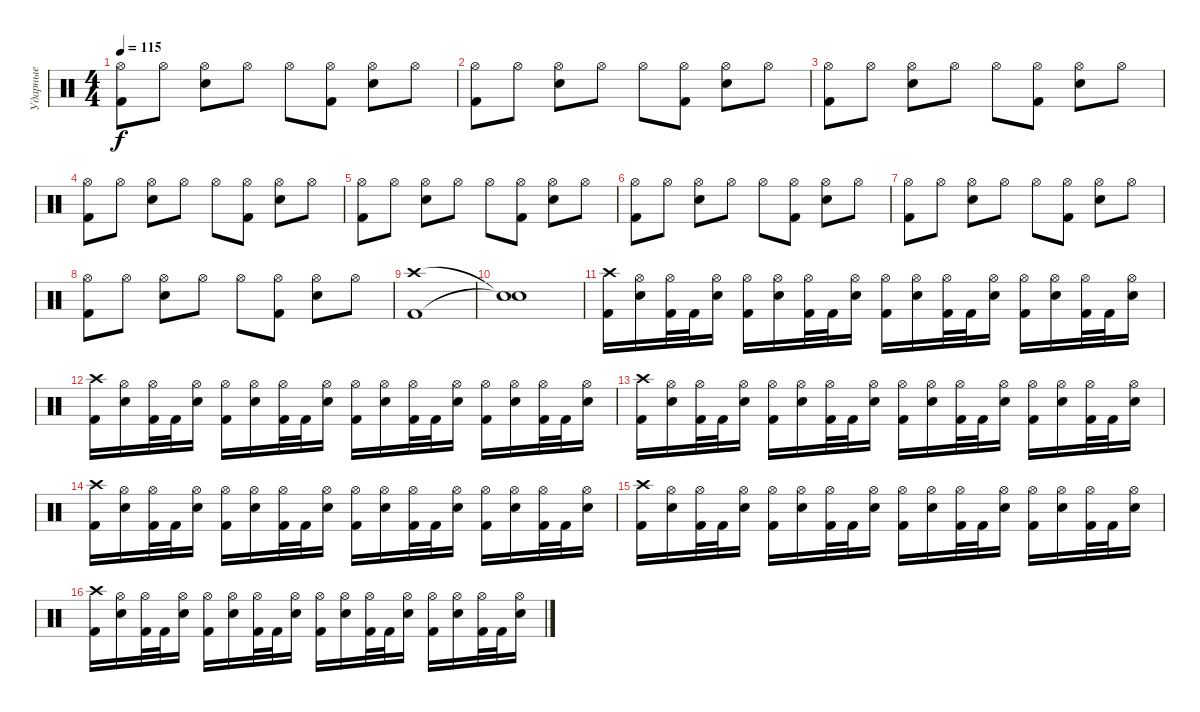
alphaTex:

\track ("Ударные" "Ударные") {instrument percussion}
\staff {score}
\articulation defaults
\ts (4 4)
\tempo 115
\clef neutral
\ks c
("Hi-Hat (open)" "Kick (hit) 2").8{dy f} "Hi-Hat (open)".8 ("Hi-Hat (open)" "Electric Snare (hit)").8 "Hi-Hat (open)".8 "Hi-Hat (open)".8 ("Hi-Hat (open)" "Kick (hit) 2").8 ("Hi-Hat (open)" "Electric Snare (hit)").8 "Hi-Hat (open)".8 |
("Hi-Hat (open)" "Kick (hit) 2").8 "Hi-Hat (open)".8 ("Hi-Hat (open)" "Electric Snare (hit)").8 "Hi-Hat (open)".8 "Hi-Hat (open)".8 ("Hi-Hat (open)" "Kick (hit) 2").8 ("Hi-Hat (open)" "Electric Snare (hit)").8 "Hi-Hat (open)".8 |
("Hi-Hat (open)" "Kick (hit) 2").8 "Hi-Hat (open)".8 ("Hi-Hat (open)" "Electric Snare (hit)").8 "Hi-Hat (open)".8 "Hi-Hat (open)".8 ("Hi-Hat (open)" "Kick (hit) 2").8 ("Hi-Hat (open)" "Electric Snare (hit)").8 "Hi-Hat (open)".8 |
("Hi-Hat (open)" "Kick (hit) 2").8 "Hi-Hat (open)".8 ("Hi-Hat (open)" "Electric Snare (hit)").8 "Hi-Hat (open)".8 "Hi-Hat (open)".8 ("Hi-Hat (open)" "Kick (hit) 2").8 ("Hi-Hat (open)" "Electric Snare (hit)").8 "Hi-Hat (open)".8 |
("Hi-Hat (open)" "Kick (hit) 2").8 "Hi-Hat (open)".8 ("Hi-Hat (open)" "Electric Snare (hit)").8 "Hi-Hat (open)".8 "Hi-Hat (open)".8 ("Hi-Hat (open)" "Kick (hit) 2").8 ("Hi-Hat (open)" "Electric Snare (hit)").8 "Hi-Hat (open)".8 |
("Hi-Hat (open)" "Kick (hit) 2").8 "Hi-Hat (open)".8 ("Hi-Hat (open)" "Electric Snare (hit)").8 "Hi-Hat (open)".8 "Hi-Hat (open)".8 ("Hi-Hat (open)" "Kick (hit) 2").8 ("Hi-Hat (open)" "Electric Snare (hit)").8 "Hi-Hat (open)".8 |
("Hi-Hat (open)" "Kick (hit) 2").8 "Hi-Hat (open)".8 ("Hi-Hat (open)" "Electric Snare (hit)").8 "Hi-Hat (open)".8 "Hi-Hat (open)".8 ("Hi-Hat (open)" "Kick (hit) 2").8 ("Hi-Hat (open)" "Electric Snare (hit)").8 "Hi-Hat (open)".8 |
("Hi-Hat (open)" "Kick (hit) 2").8 "Hi-Hat (open)".8 ("Hi-Hat (open)" "Electric Snare (hit)").8 "Hi-Hat (open)".8 "Hi-Hat (open)".8 ("Hi-Hat (open)" "Kick (hit) 2").8 ("Hi-Hat (open)" "Electric Snare (hit)").8 "Hi-Hat (open)".8 |
("Crash high (hit)" "Kick (hit) 2").1 |
("Snare (hit)"{t} "Snare (hit)"{t}).1 |
("Crash high (hit)" "Kick (hit) 2").16 ("Hi-Hat (open)" "Electric Snare (hit)").16 ("Hi-Hat (open)" "Kick (hit) 2").32 "Kick (hit) 2".32 ("Hi-Hat (open)" "Electric Snare (hit)").16 ("Hi-Hat (open)" "Kick (hit) 2").16 ("Hi-Hat (open)" "Electric Snare (hit)").16 ("Hi-Hat (open)" "Kick (hit) 2").32 "Kick (hit) 2".32 ("Hi-Hat (open)" "Electric Snare (hit)").16 ("Hi-Hat (open)" "Kick (hit) 2").16 ("Hi-Hat (open)" "Electric Snare (hit)").16 ("Hi-Hat (open)" "Kick (hit) 2").32 "Kick (hit) 2".32 ("Hi-Hat (open)" "Electric Snare (hit)").16 ("Hi-Hat (open)" "Kick (hit) 2").16 ("Hi-Hat (open)" "Electric Snare (hit)").16 ("Hi-Hat (open)" "Kick (hit) 2").32 "Kick (hit) 2".32 ("Hi-Hat (open)" "Electric Snare (hit)").16 |
("Crash high (hit)" "Kick (hit) 2").16 ("Hi-Hat (open)" "Electric Snare (hit)").16 ("Hi-Hat (open)" "Kick (hit) 2").32 "Kick (hit) 2".32 ("Hi-Hat (open)" "Electric Snare (hit)").16 ("Hi-Hat (open)" "Kick (hit) 2").16 ("Hi-Hat (open)" "Electric Snare (hit)").16 ("Hi-Hat (open)" "Kick (hit) 2").32 "Kick (hit) 2".32 ("Hi-Hat (open)" "Electric Snare (hit)").16 ("Hi-Hat (open)" "Kick (hit) 2").16 ("Hi-Hat (open)" "Electric Snare (hit)").16 ("Hi-Hat (open)" "Kick (hit) 2").32 "Kick (hit) 2".32 ("Hi-Hat (open)" "Electric Snare (hit)").16 ("Hi-Hat (open)" "Kick (hit) 2").16 ("Hi-Hat (open)" "Electric Snare (hit)").16 ("Hi-Hat (open)" "Kick (hit) 2").32 "Kick (hit) 2".32 ("Hi-Hat (open)" "Electric Snare (hit)").16 |
("Crash high (hit)" "Kick (hit) 2").16 ("Hi-Hat (open)" "Electric Snare (hit)").16 ("Hi-Hat (open)" "Kick (hit) 2").32 "Kick (hit) 2".32 ("Hi-Hat (open)" "Electric Snare (hit)").16 ("Hi-Hat (open)" "Kick (hit) 2").16 ("Hi-Hat (open)" "Electric Snare (hit)").16 ("Hi-Hat (open)" "Kick (hit) 2").32 "Kick (hit) 2".32 ("Hi-Hat (open)" "Electric Snare (hit)").16 ("Hi-Hat (open)" "Kick (hit) 2").16 ("Hi-Hat (open)" "Electric Snare (hit)").16 ("Hi-Hat (open)" "Kick (hit) 2").32 "Kick (hit) 2".32 ("Hi-Hat (open)" "Electric Snare (hit)").16 ("Hi-Hat (open)" "Kick (hit) 2").16 ("Hi-Hat (open)" "Electric Snare (hit)").16 ("Hi-Hat (open)" "Kick (hit) 2").32 "Kick (hit) 2".32 ("Hi-Hat (open)" "Electric Snare (hit)").16 |
("Crash high (hit)" "Kick (hit) 2").16 ("Hi-Hat (open)" "Electric Snare (hit)").16 ("Hi-Hat (open)" "Kick (hit) 2").32 "Kick (hit) 2".32 ("Hi-Hat (open)" "Electric Snare (hit)").16 ("Hi-Hat (open)" "Kick (hit) 2").16 ("Hi-Hat (open)" "Electric Snare (hit)").16 ("Hi-Hat (open)" "Kick (hit) 2").32 "Kick (hit) 2".32 ("Hi-Hat (open)" "Electric Snare (hit)").16 ("Hi-Hat (open)" "Kick (hit) 2").16 ("Hi-Hat (open)" "Electric Snare (hit)").16 ("Hi-Hat (open)" "Kick (hit) 2").32 "Kick (hit) 2".32 ("Hi-Hat (open)" "Electric Snare (hit)").16 ("Hi-Hat (open)" "Kick (hit) 2").16 ("Hi-Hat (open)" "Electric Snare (hit)").16 ("Hi-Hat (open)" "Kick (hit) 2").32 "Kick (hit) 2".32 ("Hi-Hat (open)" "Electric Snare (hit)").16 |
("Crash high (hit)" "Kick (hit) 2").16 ("Hi-Hat (open)" "Electric Snare (hit)").16 ("Hi-Hat (open)" "Kick (hit) 2").32 "Kick (hit) 2".32 ("Hi-Hat (open)" "Electric Snare (hit)").16 ("Hi-Hat (open)" "Kick (hit) 2").16 ("Hi-Hat (open)" "Electric Snare (hit)").16 ("Hi-Hat (open)" "Kick (hit) 2").32 "Kick (hit) 2".32 ("Hi-Hat (open)" "Electric Snare (hit)").16 ("Hi-Hat (open)" "Kick (hit) 2").16 ("Hi-Hat (open)" "Electric Snare (hit)").16 ("Hi-Hat (open)" "Kick (hit) 2").32 "Kick (hit) 2".32 ("Hi-Hat (open)" "Electric Snare (hit)").16 ("Hi-Hat (open)" "Kick (hit) 2").16 ("Hi-Hat (open)" "Electric Snare (hit)").16 ("Hi-Hat (open)" "Kick (hit) 2").32 "Kick (hit) 2".32 ("Hi-Hat (open)" "Electric Snare (hit)").16 |
("Crash high (hit)" "Kick (hit) 2").16 ("Hi-Hat (open)" "Electric Snare (hit)").16 ("Hi-Hat (open)" "Kick (hit) 2").32 "Kick (hit) 2".32 ("Hi-Hat (open)" "Electric Snare (hit)").16 ("Hi-Hat (open)" "Kick (hit) 2").16 ("Hi-Hat (open)" "Electric Snare (hit)").16 ("Hi-Hat (open)" "Kick (hit) 2").32 "Kick (hit) 2".32 ("Hi-Hat (open)" "Electric Snare (hit)").16 ("Hi-Hat (open)" "Kick (hit) 2").16 ("Hi-Hat (open)" "Electric Snare (hit)").16 ("Hi-Hat (open)" "Kick (hit) 2").32 "Kick (hit) 2".32 ("Hi-Hat (open)" "Electric Snare (hit)").16 ("Hi-Hat (open)" "Kick (hit) 2").16 ("Hi-Hat (open)" "Electric Snare (hit)").16 ("Hi-Hat (open)" "Kick (hit) 2").32 "Kick (hit) 2".32 ("Hi-Hat (open)" "Electric Snare (hit)").16
